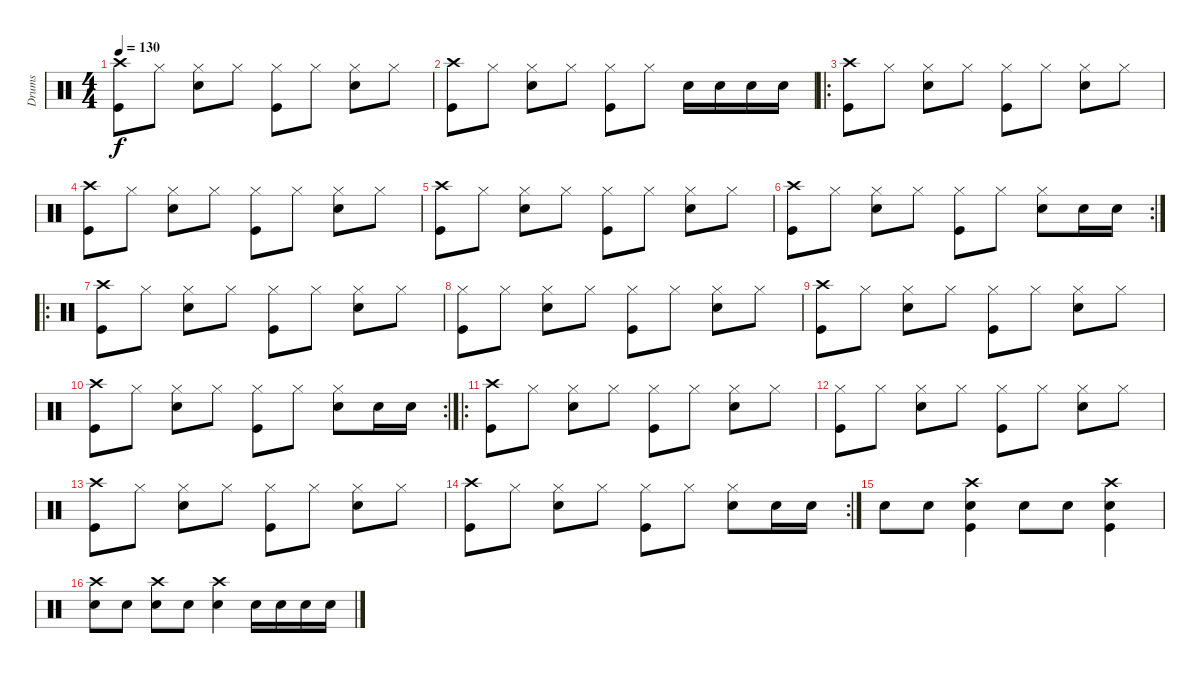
\track ("Drums" "Drums") {instrument percussion}
\staff {score}
\articulation defaults
\ts (4 4)
\tempo 130
\clef neutral
\ks c
("Crash high (hit)" "Kick (hit)").8{dy f} "Hi-Hat (closed)".8 ("Hi-Hat (closed)" "Snare (hit) 2").8 "Hi-Hat (closed)".8 ("Hi-Hat (closed)" "Kick (hit)").8 "Hi-Hat (closed)".8 ("Hi-Hat (closed)" "Snare (hit) 2").8 "Hi-Hat (closed)".8 |
("Crash high (hit)" "Kick (hit)").8 "Hi-Hat (closed)".8 ("Hi-Hat (closed)" "Snare (hit) 2").8 "Hi-Hat (closed)".8 ("Hi-Hat (closed)" "Kick (hit)").8 "Hi-Hat (closed)".8 "Snare (hit) 2".16 "Snare (hit) 2".16 "Snare (hit) 2".16 "Snare (hit) 2".16 |
\ro
("Crash high (hit)" "Kick (hit)").8 "Hi-Hat (closed)".8 ("Hi-Hat (closed)" "Snare (hit) 2").8 "Hi-Hat (closed)".8 ("Hi-Hat (closed)" "Kick (hit)").8 "Hi-Hat (closed)".8 ("Hi-Hat (closed)" "Snare (hit) 2").8 "Hi-Hat (closed)".8 |
("Crash high (hit)" "Kick (hit)").8 "Hi-Hat (closed)".8 ("Hi-Hat (closed)" "Snare (hit) 2").8 "Hi-Hat (closed)".8 ("Hi-Hat (closed)" "Kick (hit)").8 "Hi-Hat (closed)".8 ("Hi-Hat (closed)" "Snare (hit) 2").8 "Hi-Hat (closed)".8 |
("Crash high (hit)" "Kick (hit)").8 "Hi-Hat (closed)".8 ("Hi-Hat (closed)" "Snare (hit) 2").8 "Hi-Hat (closed)".8 ("Hi-Hat (closed)" "Kick (hit)").8 "Hi-Hat (closed)".8 ("Hi-Hat (closed)" "Snare (hit) 2").8 "Hi-Hat (closed)".8 |
\rc 2
("Crash high (hit)" "Kick (hit)").8 "Hi-Hat (closed)".8 ("Hi-Hat (closed)" "Snare (hit) 2").8 "Hi-Hat (closed)".8 ("Hi-Hat (closed)" "Kick (hit)").8 "Hi-Hat (closed)".8 ("Hi-Hat (closed)" "Snare (hit) 2").8 "Snare (hit) 2".16 "Snare (hit) 2".16 |
\ro
("Crash high (hit)" "Kick (hit)").8 "Hi-Hat (closed)".8 ("Hi-Hat (closed)" "Snare (hit) 2").8 "Hi-Hat (closed)".8 ("Hi-Hat (closed)" "Kick (hit)").8 "Hi-Hat (closed)".8 ("Hi-Hat (closed)" "Snare (hit) 2").8 "Hi-Hat (closed)".8 |
("Hi-Hat (closed)" "Kick (hit)").8 "Hi-Hat (closed)".8 ("Hi-Hat (closed)" "Snare (hit) 2").8 "Hi-Hat (closed)".8 ("Hi-Hat (closed)" "Kick (hit)").8 "Hi-Hat (closed)".8 ("Hi-Hat (closed)" "Snare (hit) 2").8 "Hi-Hat (closed)".8 |
("Crash high (hit)" "Kick (hit)").8 "Hi-Hat (closed)".8 ("Hi-Hat (closed)" "Snare (hit) 2").8 "Hi-Hat (closed)".8 ("Hi-Hat (closed)" "Kick (hit)").8 "Hi-Hat (closed)".8 ("Hi-Hat (closed)" "Snare (hit) 2").8 "Hi-Hat (closed)".8 |
\rc 2
("Crash high (hit)" "Kick (hit)").8 "Hi-Hat (closed)".8 ("Hi-Hat (closed)" "Snare (hit) 2").8 "Hi-Hat (closed)".8 ("Hi-Hat (closed)" "Kick (hit)").8 "Hi-Hat (closed)".8 ("Hi-Hat (closed)" "Snare (hit) 2").8 "Snare (hit) 2".16 "Snare (hit) 2".16 |
\ro
("Crash high (hit)" "Kick (hit)").8 "Hi-Hat (closed)".8 ("Hi-Hat (closed)" "Snare (hit) 2").8 "Hi-Hat (closed)".8 ("Hi-Hat (closed)" "Kick (hit)").8 "Hi-Hat (closed)".8 ("Hi-Hat (closed)" "Snare (hit) 2").8 "Hi-Hat (closed)".8 |
("Hi-Hat (closed)" "Kick (hit)").8 "Hi-Hat (closed)".8 ("Hi-Hat (closed)" "Snare (hit) 2").8 "Hi-Hat (closed)".8 ("Hi-Hat (closed)" "Kick (hit)").8 "Hi-Hat (closed)".8 ("Hi-Hat (closed)" "Snare (hit) 2").8 "Hi-Hat (closed)".8 |
("Crash high (hit)" "Kick (hit)").8 "Hi-Hat (closed)".8 ("Hi-Hat (closed)" "Snare (hit) 2").8 "Hi-Hat (closed)".8 ("Hi-Hat (closed)" "Kick (hit)").8 "Hi-Hat (closed)".8 ("Hi-Hat (closed)" "Snare (hit) 2").8 "Hi-Hat (closed)".8 |
\rc 2
("Crash high (hit)" "Kick (hit)").8 "Hi-Hat (closed)".8 ("Hi-Hat (closed)" "Snare (hit) 2").8 "Hi-Hat (closed)".8 ("Hi-Hat (closed)" "Kick (hit)").8 "Hi-Hat (closed)".8 ("Hi-Hat (closed)" "Snare (hit) 2").8 "Snare (hit) 2".16 "Snare (hit) 2".16 |
"Snare (hit) 2".8 "Snare (hit) 2".8 ("Crash high (hit)" "Snare (hit) 2" "Kick (hit)").4 "Snare (hit) 2".8 "Snare (hit) 2".8 ("Crash high (hit)" "Snare (hit) 2" "Kick (hit)").4 |
("Crash high (hit)" "Snare (hit) 2").8 "Snare (hit) 2".8 ("Crash high (hit)" "Snare (hit) 2").8 "Snare (hit) 2".8 ("Crash high (hit)" "Snare (hit) 2").4 "Snare (hit) 2".16 "Snare (hit) 2".16 "Snare (hit) 2".16 "Snare (hit) 2".16
